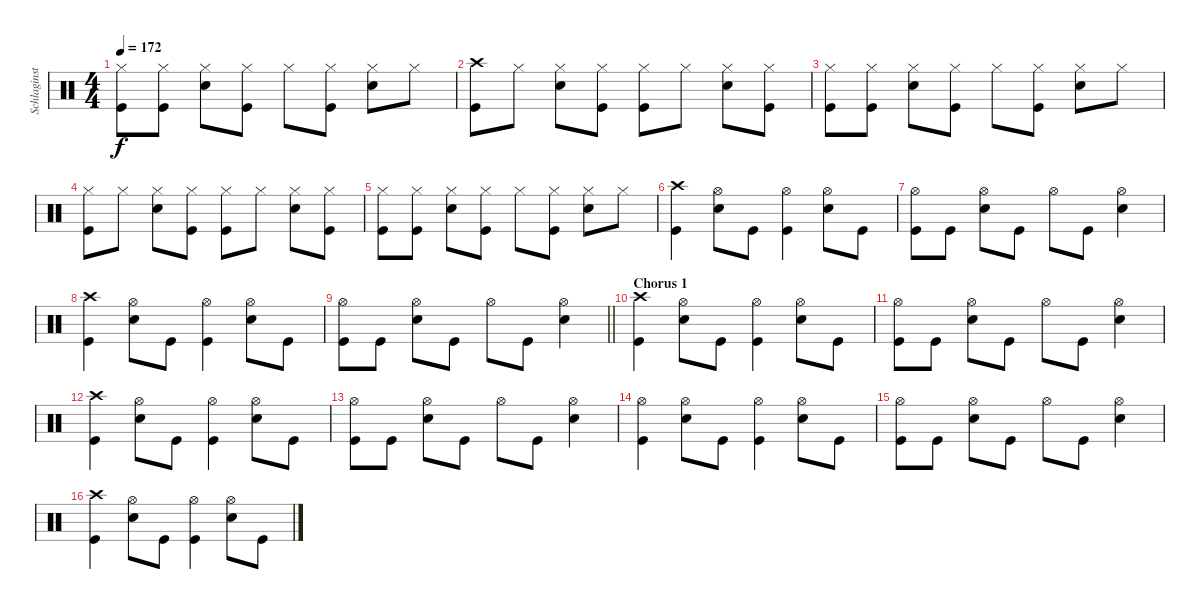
\track ("Schlaginstrumente - Auswahl" "Schlaginst") {instrument percussion}
\staff {score}
\articulation defaults
\ts (4 4)
\tempo 172
\clef neutral
\ks c
("Hi-Hat (closed)" "Kick (hit)").8{dy f} ("Hi-Hat (closed)" "Kick (hit)").8 ("Hi-Hat (closed)" "Snare (hit) 2").8 ("Hi-Hat (closed)" "Kick (hit)").8 "Hi-Hat (closed)".8 ("Hi-Hat (closed)" "Kick (hit)").8 ("Hi-Hat (closed)" "Snare (hit) 2").8 "Hi-Hat (closed)".8 |
("Crash high (hit)" "Kick (hit)").8 "Hi-Hat (closed)".8 ("Hi-Hat (closed)" "Snare (hit) 2").8 ("Hi-Hat (closed)" "Kick (hit)").8 ("Hi-Hat (closed)" "Kick (hit)").8 "Hi-Hat (closed)".8 ("Hi-Hat (closed)" "Snare (hit) 2").8 ("Hi-Hat (closed)" "Kick (hit)").8 |
("Hi-Hat (closed)" "Kick (hit)").8 ("Hi-Hat (closed)" "Kick (hit)").8 ("Hi-Hat (closed)" "Snare (hit) 2").8 ("Hi-Hat (closed)" "Kick (hit)").8 "Hi-Hat (closed)".8 ("Hi-Hat (closed)" "Kick (hit)").8 ("Hi-Hat (closed)" "Snare (hit) 2").8 "Hi-Hat (closed)".8 |
("Hi-Hat (closed)" "Kick (hit)").8 "Hi-Hat (closed)".8 ("Hi-Hat (closed)" "Snare (hit) 2").8 ("Hi-Hat (closed)" "Kick (hit)").8 ("Hi-Hat (closed)" "Kick (hit)").8 "Hi-Hat (closed)".8 ("Hi-Hat (closed)" "Snare (hit) 2").8 ("Hi-Hat (closed)" "Kick (hit)").8 |
("Hi-Hat (closed)" "Kick (hit)").8 ("Hi-Hat (closed)" "Kick (hit)").8 ("Hi-Hat (closed)" "Snare (hit) 2").8 ("Hi-Hat (closed)" "Kick (hit)").8 "Hi-Hat (closed)".8 ("Hi-Hat (closed)" "Kick (hit)").8 ("Hi-Hat (closed)" "Snare (hit) 2").8 "Hi-Hat (closed)".8 |
("Crash high (hit)" "Kick (hit)").4 ("Hi-Hat (open)" "Snare (hit) 2").8 "Kick (hit)".8 ("Hi-Hat (open)" "Kick (hit)").4 ("Hi-Hat (open)" "Snare (hit) 2").8 "Kick (hit)".8 |
("Hi-Hat (open)" "Kick (hit)").8 "Kick (hit)".8 ("Hi-Hat (open)" "Snare (hit) 2").8 "Kick (hit)".8 "Hi-Hat (open)".8 "Kick (hit)".8 ("Hi-Hat (open)" "Snare (hit) 2").4 |
("Crash high (hit)" "Kick (hit)").4 ("Hi-Hat (open)" "Snare (hit) 2").8 "Kick (hit)".8 ("Hi-Hat (open)" "Kick (hit)").4 ("Hi-Hat (open)" "Snare (hit) 2").8 "Kick (hit)".8 |
\barLineRight lightlight
("Hi-Hat (open)" "Kick (hit)").8 "Kick (hit)".8 ("Hi-Hat (open)" "Snare (hit) 2").8 "Kick (hit)".8 "Hi-Hat (open)".8 "Kick (hit)".8 ("Hi-Hat (open)" "Snare (hit) 2").4 |
\section ("" "Chorus 1")
("Crash high (hit)" "Kick (hit)").4 ("Hi-Hat (open)" "Snare (hit) 2").8 "Kick (hit)".8 ("Hi-Hat (open)" "Kick (hit)").4 ("Hi-Hat (open)" "Snare (hit) 2").8 "Kick (hit)".8 |
("Hi-Hat (open)" "Kick (hit)").8 "Kick (hit)".8 ("Hi-Hat (open)" "Snare (hit) 2").8 "Kick (hit)".8 "Hi-Hat (open)".8 "Kick (hit)".8 ("Hi-Hat (open)" "Snare (hit) 2").4 |
("Crash high (hit)" "Kick (hit)").4 ("Hi-Hat (open)" "Snare (hit) 2").8 "Kick (hit)".8 ("Hi-Hat (open)" "Kick (hit)").4 ("Hi-Hat (open)" "Snare (hit) 2").8 "Kick (hit)".8 |
("Hi-Hat (open)" "Kick (hit)").8 "Kick (hit)".8 ("Hi-Hat (open)" "Snare (hit) 2").8 "Kick (hit)".8 "Hi-Hat (open)".8 "Kick (hit)".8 ("Hi-Hat (open)" "Snare (hit) 2").4 |
("Hi-Hat (open)" "Kick (hit)").4 ("Hi-Hat (open)" "Snare (hit) 2").8 "Kick (hit)".8 ("Hi-Hat (open)" "Kick (hit)").4 ("Hi-Hat (open)" "Snare (hit) 2").8 "Kick (hit)".8 |
("Hi-Hat (open)" "Kick (hit)").8 "Kick (hit)".8 ("Hi-Hat (open)" "Snare (hit) 2").8 "Kick (hit)".8 "Hi-Hat (open)".8 "Kick (hit)".8 ("Hi-Hat (open)" "Snare (hit) 2").4 |
("Crash high (hit)" "Kick (hit)").4 ("Hi-Hat (open)" "Snare (hit) 2").8 "Kick (hit)".8 ("Hi-Hat (open)" "Kick (hit)").4 ("Hi-Hat (open)" "Snare (hit) 2").8 "Kick (hit)".8
